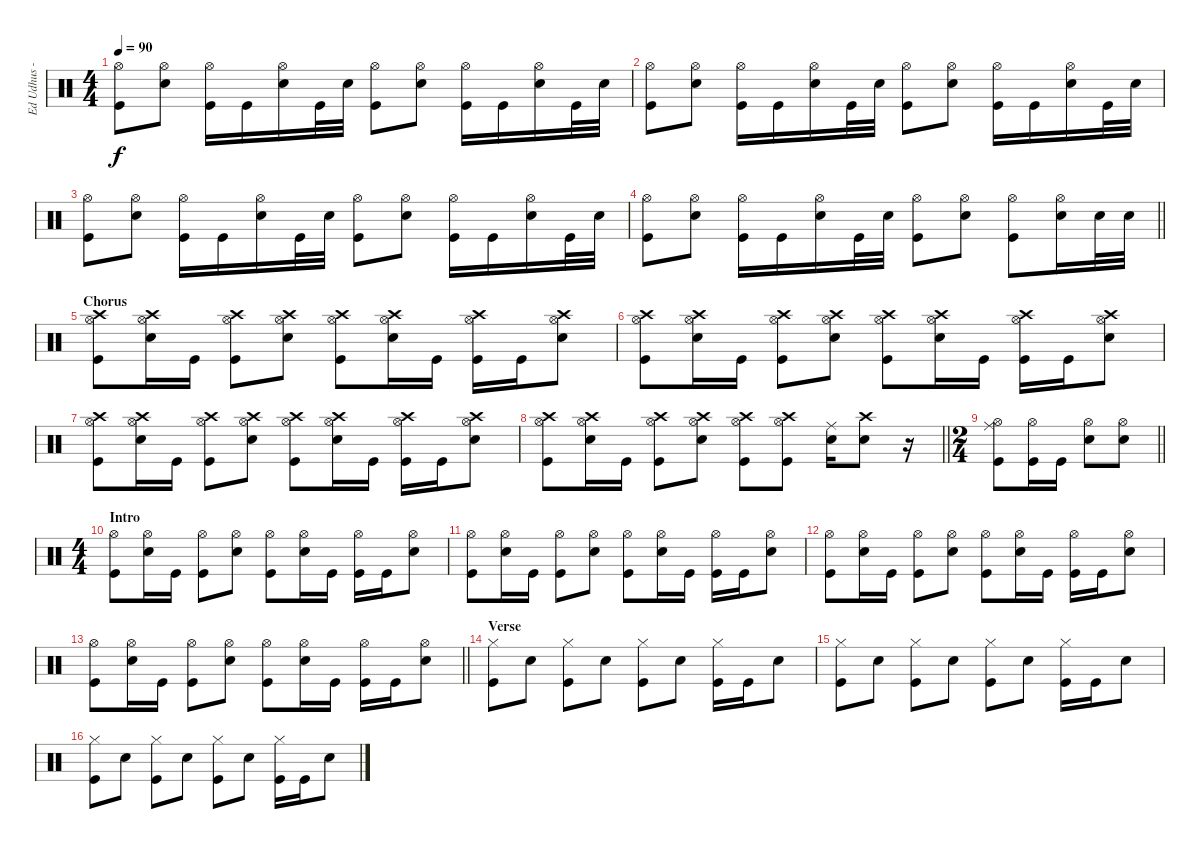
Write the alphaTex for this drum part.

\track ("Ed Udhus - Drums" "Ed Udhus -") {instrument percussion}
\staff {score}
\articulation defaults
\ts (4 4)
\tempo 90
\clef neutral
\ks c
("Hi-Hat (open)" "Kick (hit)").8{dy f} ("Hi-Hat (open)" "Electric Snare (hit)").8 ("Hi-Hat (open)" "Kick (hit)").16 "Kick (hit)".16 ("Hi-Hat (open)" "Electric Snare (hit)").16 "Kick (hit)".32 "Electric Snare (hit)".32 ("Hi-Hat (open)" "Kick (hit)").8 ("Hi-Hat (open)" "Electric Snare (hit)").8 ("Hi-Hat (open)" "Kick (hit)").16 "Kick (hit)".16 ("Hi-Hat (open)" "Electric Snare (hit)").16 "Kick (hit)".32 "Electric Snare (hit)".32 |
("Hi-Hat (open)" "Kick (hit)").8 ("Hi-Hat (open)" "Electric Snare (hit)").8 ("Hi-Hat (open)" "Kick (hit)").16 "Kick (hit)".16 ("Hi-Hat (open)" "Electric Snare (hit)").16 "Kick (hit)".32 "Electric Snare (hit)".32 ("Hi-Hat (open)" "Kick (hit)").8 ("Hi-Hat (open)" "Electric Snare (hit)").8 ("Hi-Hat (open)" "Kick (hit)").16 "Kick (hit)".16 ("Hi-Hat (open)" "Electric Snare (hit)").16 "Kick (hit)".32 "Electric Snare (hit)".32 |
("Hi-Hat (open)" "Kick (hit)").8 ("Hi-Hat (open)" "Electric Snare (hit)").8 ("Hi-Hat (open)" "Kick (hit)").16 "Kick (hit)".16 ("Hi-Hat (open)" "Electric Snare (hit)").16 "Kick (hit)".32 "Electric Snare (hit)".32 ("Hi-Hat (open)" "Kick (hit)").8 ("Hi-Hat (open)" "Electric Snare (hit)").8 ("Hi-Hat (open)" "Kick (hit)").16 "Kick (hit)".16 ("Hi-Hat (open)" "Electric Snare (hit)").16 "Kick (hit)".32 "Electric Snare (hit)".32 |
\barLineRight lightlight
("Hi-Hat (open)" "Kick (hit)").8 ("Hi-Hat (open)" "Electric Snare (hit)").8 ("Hi-Hat (open)" "Kick (hit)").16 "Kick (hit)".16 ("Hi-Hat (open)" "Electric Snare (hit)").16 "Kick (hit)".32 "Electric Snare (hit)".32 ("Hi-Hat (open)" "Kick (hit)").8 ("Hi-Hat (open)" "Electric Snare (hit)").8 ("Hi-Hat (open)" "Kick (hit)").8 ("Hi-Hat (open)" "Electric Snare (hit)").16 "Electric Snare (hit)".32 "Electric Snare (hit)".32 |
\section ("" "Chorus")
("Crash high (hit)" "Hi-Hat (open)" "Kick (hit)").8 ("Crash high (hit)" "Hi-Hat (open)" "Electric Snare (hit)").16 "Kick (hit)".16 ("Crash high (hit)" "Hi-Hat (open)" "Kick (hit)").8 ("Crash high (hit)" "Hi-Hat (open)" "Electric Snare (hit)").8 ("Crash high (hit)" "Hi-Hat (open)" "Kick (hit)").8 ("Crash high (hit)" "Hi-Hat (open)" "Electric Snare (hit)").16 "Kick (hit)".16 ("Crash high (hit)" "Hi-Hat (open)" "Kick (hit)").16 "Kick (hit)".16 ("Crash high (hit)" "Hi-Hat (open)" "Electric Snare (hit)").8 |
("Crash high (hit)" "Hi-Hat (open)" "Kick (hit)").8 ("Crash high (hit)" "Hi-Hat (open)" "Electric Snare (hit)").16 "Kick (hit)".16 ("Crash high (hit)" "Hi-Hat (open)" "Kick (hit)").8 ("Crash high (hit)" "Hi-Hat (open)" "Electric Snare (hit)").8 ("Crash high (hit)" "Hi-Hat (open)" "Kick (hit)").8 ("Crash high (hit)" "Hi-Hat (open)" "Electric Snare (hit)").16 "Kick (hit)".16 ("Crash high (hit)" "Hi-Hat (open)" "Kick (hit)").16 "Kick (hit)".16 ("Crash high (hit)" "Hi-Hat (open)" "Electric Snare (hit)").8 |
("Crash high (hit)" "Hi-Hat (open)" "Kick (hit)").8 ("Crash high (hit)" "Hi-Hat (open)" "Electric Snare (hit)").16 "Kick (hit)".16 ("Crash high (hit)" "Hi-Hat (open)" "Kick (hit)").8 ("Crash high (hit)" "Hi-Hat (open)" "Electric Snare (hit)").8 ("Crash high (hit)" "Hi-Hat (open)" "Kick (hit)").8 ("Crash high (hit)" "Hi-Hat (open)" "Electric Snare (hit)").16 "Kick (hit)".16 ("Crash high (hit)" "Hi-Hat (open)" "Kick (hit)").16 "Kick (hit)".16 ("Crash high (hit)" "Hi-Hat (open)" "Electric Snare (hit)").8 |
\barLineRight lightlight
("Crash high (hit)" "Hi-Hat (open)" "Kick (hit)").8 ("Crash high (hit)" "Hi-Hat (open)" "Electric Snare (hit)").16 "Kick (hit)".16 ("Crash high (hit)" "Hi-Hat (open)" "Kick (hit)").8 ("Crash high (hit)" "Hi-Hat (open)" "Electric Snare (hit)").8 ("Crash high (hit)" "Hi-Hat (open)" "Kick (hit)").8 ("Crash high (hit)" "Hi-Hat (open)" "Kick (hit)").8 ("Ride (middle)" "Electric Snare (hit)").16 ("Crash high (hit)" "Electric Snare (hit)").8 r.16 |
\ts (2 4)
\barLineRight lightlight
("Ride (middle)" "Hi-Hat (open)" "Kick (hit)").8 ("Hi-Hat (open)" "Kick (hit)").16 "Kick (hit)".16 ("Hi-Hat (open)" "Electric Snare (hit)").8 ("Hi-Hat (open)" "Electric Snare (hit)").8 |
\ts (4 4)
\section ("" "Intro")
("Hi-Hat (open)" "Kick (hit)").8 ("Hi-Hat (open)" "Electric Snare (hit)").16 "Kick (hit)".16 ("Hi-Hat (open)" "Kick (hit)").8 ("Hi-Hat (open)" "Electric Snare (hit)").8 ("Hi-Hat (open)" "Kick (hit)").8 ("Hi-Hat (open)" "Electric Snare (hit)").16 "Kick (hit)".16 ("Hi-Hat (open)" "Kick (hit)").16 "Kick (hit)".16 ("Hi-Hat (open)" "Electric Snare (hit)").8 |
("Hi-Hat (open)" "Kick (hit)").8 ("Hi-Hat (open)" "Electric Snare (hit)").16 "Kick (hit)".16 ("Hi-Hat (open)" "Kick (hit)").8 ("Hi-Hat (open)" "Electric Snare (hit)").8 ("Hi-Hat (open)" "Kick (hit)").8 ("Hi-Hat (open)" "Electric Snare (hit)").16 "Kick (hit)".16 ("Hi-Hat (open)" "Kick (hit)").16 "Kick (hit)".16 ("Hi-Hat (open)" "Electric Snare (hit)").8 |
("Hi-Hat (open)" "Kick (hit)").8 ("Hi-Hat (open)" "Electric Snare (hit)").16 "Kick (hit)".16 ("Hi-Hat (open)" "Kick (hit)").8 ("Hi-Hat (open)" "Electric Snare (hit)").8 ("Hi-Hat (open)" "Kick (hit)").8 ("Hi-Hat (open)" "Electric Snare (hit)").16 "Kick (hit)".16 ("Hi-Hat (open)" "Kick (hit)").16 "Kick (hit)".16 ("Hi-Hat (open)" "Electric Snare (hit)").8 |
\barLineRight lightlight
("Hi-Hat (open)" "Kick (hit)").8 ("Hi-Hat (open)" "Electric Snare (hit)").16 "Kick (hit)".16 ("Hi-Hat (open)" "Kick (hit)").8 ("Hi-Hat (open)" "Electric Snare (hit)").8 ("Hi-Hat (open)" "Kick (hit)").8 ("Hi-Hat (open)" "Electric Snare (hit)").16 "Kick (hit)".16 ("Hi-Hat (open)" "Kick (hit)").16 "Kick (hit)".16 ("Hi-Hat (open)" "Electric Snare (hit)").8 |
\section ("" "Verse")
("Hi-Hat (closed)" "Kick (hit)").8 "Electric Snare (hit)".8 ("Hi-Hat (closed)" "Kick (hit)").8 "Electric Snare (hit)".8 ("Hi-Hat (closed)" "Kick (hit)").8 "Electric Snare (hit)".8 ("Hi-Hat (closed)" "Kick (hit)").16 "Kick (hit)".16 "Electric Snare (hit)".8 |
("Hi-Hat (closed)" "Kick (hit)").8 "Electric Snare (hit)".8 ("Hi-Hat (closed)" "Kick (hit)").8 "Electric Snare (hit)".8 ("Hi-Hat (closed)" "Kick (hit)").8 "Electric Snare (hit)".8 ("Hi-Hat (closed)" "Kick (hit)").16 "Kick (hit)".16 "Electric Snare (hit)".8 |
("Hi-Hat (closed)" "Kick (hit)").8 "Electric Snare (hit)".8 ("Hi-Hat (closed)" "Kick (hit)").8 "Electric Snare (hit)".8 ("Hi-Hat (closed)" "Kick (hit)").8 "Electric Snare (hit)".8 ("Hi-Hat (closed)" "Kick (hit)").16 "Kick (hit)".16 "Electric Snare (hit)".8
